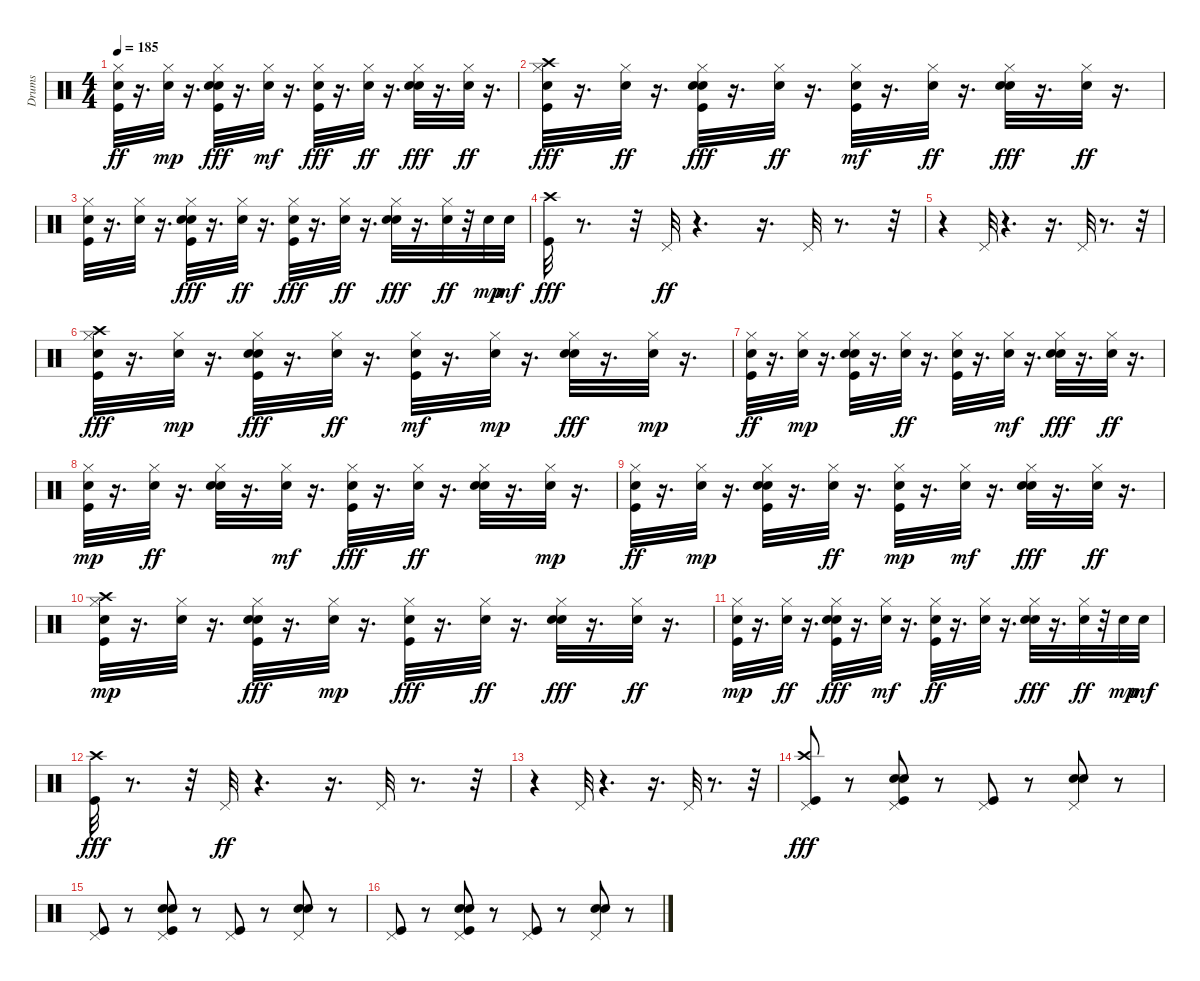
\track ("Drums" "Drums") {instrument percussion}
\staff {score}
\articulation defaults
\ts (4 4)
\tempo 185
\clef neutral
\ks c
("Snare (hit) 2" "Kick (hit)" "Hi-Hat (closed)").32{dy ff} r.16{d} ("Hi-Hat (closed)" "Snare (hit) 2").32{dy mp} r.16{d} ("Kick (hit)" "Hand Clap (hit)" "Snare (hit) 2" "Hi-Hat (closed)").32{dy fff} r.16{d} ("Hi-Hat (closed)" "Snare (hit) 2").32{dy mf} r.16{d} ("Snare (hit) 2" "Hi-Hat (closed)" "Kick (hit)").32{dy fff} r.16{d} ("Snare (hit) 2" "Hi-Hat (closed)").32{dy ff} r.16{d} ("Hand Clap (hit)" "Snare (hit) 2" "Hi-Hat (closed)").32{dy fff} r.16{d} ("Snare (hit) 2" "Hi-Hat (closed)").32{dy ff} r.16{d} |
("Kick (hit)" "Snare (hit) 2" "Hi-Hat (closed)" "Crash high (hit)").32{dy fff} r.16{d} ("Snare (hit) 2" "Hi-Hat (closed)").32{dy ff} r.16{d} ("Kick (hit)" "Hand Clap (hit)" "Snare (hit) 2" "Hi-Hat (closed)").32{dy fff} r.16{d} ("Snare (hit) 2" "Hi-Hat (closed)").32{dy ff} r.16{d} ("Hi-Hat (closed)" "Kick (hit)" "Snare (hit) 2").32{dy mf} r.16{d} ("Snare (hit) 2" "Hi-Hat (closed)").32{dy ff} r.16{d} ("Snare (hit) 2" "Hand Clap (hit)" "Hi-Hat (closed)").32{dy fff} r.16{d} ("Snare (hit) 2" "Hi-Hat (closed)").32{dy ff} r.16{d} |
("Snare (hit) 2" "Kick (hit)" "Hi-Hat (closed)").32 r.16{d} ("Snare (hit) 2" "Hi-Hat (closed)").32 r.16{d} ("Kick (hit)" "Hi-Hat (closed)" "Snare (hit) 2" "Hand Clap (hit)").32{dy fff} r.16{d} ("Snare (hit) 2" "Hi-Hat (closed)").32{dy ff} r.16{d} ("Snare (hit) 2" "Hi-Hat (closed)" "Kick (hit)").32{dy fff} r.16{d} ("Snare (hit) 2" "Hi-Hat (closed)").32{dy ff} r.16{d} ("Hi-Hat (closed)" "Hand Clap (hit)" "Snare (hit) 2").32{dy fff} r.16{d} ("Snare (hit) 2" "Hi-Hat (closed)").32{dy ff} r.32 "Snare (hit) 2".32{dy mp} "Snare (hit) 2".32{dy mf} |
("Kick (hit)" "Crash high (hit)").32{dy fff} r.8{d} r.32 "Pedal Hi-Hat (hit)".32{dy ff} r.4{d} r.16{d} "Pedal Hi-Hat (hit)".32 r.8{d} r.32 |
r.4 "Pedal Hi-Hat (hit)".32 r.4{d} r.16{d} "Pedal Hi-Hat (hit)".32 r.8{d} r.32 |
("Hi-Hat (closed)" "Snare (hit) 2" "Crash high (hit)" "Kick (hit)").32{dy fff} r.16{d} ("Hi-Hat (closed)" "Snare (hit) 2").32{dy mp} r.16{d} ("Hand Clap (hit)" "Kick (hit)" "Snare (hit) 2" "Hi-Hat (closed)").32{dy fff} r.16{d} ("Snare (hit) 2" "Hi-Hat (closed)").32{dy ff} r.16{d} ("Kick (hit)" "Hi-Hat (closed)" "Snare (hit) 2").32{dy mf} r.16{d} ("Hi-Hat (closed)" "Snare (hit) 2").32{dy mp} r.16{d} ("Hi-Hat (closed)" "Snare (hit) 2" "Hand Clap (hit)").32{dy fff} r.16{d} ("Hi-Hat (closed)" "Snare (hit) 2").32{dy mp} r.16{d} |
("Snare (hit) 2" "Kick (hit)" "Hi-Hat (closed)").32{dy ff} r.16{d} ("Hi-Hat (closed)" "Snare (hit) 2").32{dy mp} r.16{d} ("Hand Clap (hit)" "Hi-Hat (closed)" "Snare (hit) 2" "Kick (hit)").32 r.16{d} ("Snare (hit) 2" "Hi-Hat (closed)").32{dy ff} r.16{d} ("Kick (hit)" "Snare (hit) 2" "Hi-Hat (closed)").32 r.16{d} ("Hi-Hat (closed)" "Snare (hit) 2").32{dy mf} r.16{d} ("Hi-Hat (closed)" "Hand Clap (hit)" "Snare (hit) 2").32{dy fff} r.16{d} ("Snare (hit) 2" "Hi-Hat (closed)").32{dy ff} r.16{d} |
("Kick (hit)" "Hi-Hat (closed)" "Snare (hit) 2").32{dy mp} r.16{d} ("Snare (hit) 2" "Hi-Hat (closed)").32{dy ff} r.16{d} ("Snare (hit) 2" "Hand Clap (hit)" "Hi-Hat (closed)").32 r.16{d} ("Hi-Hat (closed)" "Snare (hit) 2").32{dy mf} r.16{d} ("Hi-Hat (closed)" "Snare (hit) 2" "Kick (hit)").32{dy fff} r.16{d} ("Snare (hit) 2" "Hi-Hat (closed)").32{dy ff} r.16{d} ("Hand Clap (hit)" "Snare (hit) 2" "Hi-Hat (closed)").32 r.16{d} ("Hi-Hat (closed)" "Snare (hit) 2").32{dy mp} r.16{d} |
("Snare (hit) 2" "Kick (hit)" "Hi-Hat (closed)").32{dy ff} r.16{d} ("Hi-Hat (closed)" "Snare (hit) 2").32{dy mp} r.16{d} ("Hand Clap (hit)" "Snare (hit) 2" "Hi-Hat (closed)" "Kick (hit)").32 r.16{d} ("Snare (hit) 2" "Hi-Hat (closed)").32{dy ff} r.16{d} ("Kick (hit)" "Hi-Hat (closed)" "Snare (hit) 2").32{dy mp} r.16{d} ("Hi-Hat (closed)" "Snare (hit) 2").32{dy mf} r.16{d} ("Hi-Hat (closed)" "Snare (hit) 2" "Hand Clap (hit)").32{dy fff} r.16{d} ("Snare (hit) 2" "Hi-Hat (closed)").32{dy ff} r.16{d} |
("Hi-Hat (closed)" "Crash high (hit)" "Kick (hit)" "Snare (hit) 2").32{dy mp} r.16{d} ("Hi-Hat (closed)" "Snare (hit) 2").32 r.16{d} ("Kick (hit)" "Snare (hit) 2" "Hi-Hat (closed)" "Hand Clap (hit)").32{dy fff} r.16{d} ("Hi-Hat (closed)" "Snare (hit) 2").32{dy mp} r.16{d} ("Snare (hit) 2" "Hi-Hat (closed)" "Kick (hit)").32{dy fff} r.16{d} ("Snare (hit) 2" "Hi-Hat (closed)").32{dy ff} r.16{d} ("Hi-Hat (closed)" "Hand Clap (hit)" "Snare (hit) 2").32{dy fff} r.16{d} ("Snare (hit) 2" "Hi-Hat (closed)").32{dy ff} r.16{d} |
("Kick (hit)" "Hi-Hat (closed)" "Snare (hit) 2").32{dy mp} r.16{d} ("Snare (hit) 2" "Hi-Hat (closed)").32{dy ff} r.16{d} ("Kick (hit)" "Snare (hit) 2" "Hi-Hat (closed)" "Hand Clap (hit)").32{dy fff} r.16{d} ("Hi-Hat (closed)" "Snare (hit) 2").32{dy mf} r.16{d} ("Snare (hit) 2" "Kick (hit)" "Hi-Hat (closed)").32{dy ff} r.16{d} ("Snare (hit) 2" "Hi-Hat (closed)").32 r.16{d} ("Hi-Hat (closed)" "Snare (hit) 2" "Hand Clap (hit)").32{dy fff} r.16{d} ("Snare (hit) 2" "Hi-Hat (closed)").32{dy ff} r.32 "Snare (hit) 2".32{dy mp} "Snare (hit) 2".32{dy mf} |
("Kick (hit)" "Crash high (hit)").32{dy fff} r.8{d} r.32 "Pedal Hi-Hat (hit)".32{dy ff} r.4{d} r.16{d} "Pedal Hi-Hat (hit)".32 r.8{d} r.32 |
r.4 "Pedal Hi-Hat (hit)".32 r.4{d} r.16{d} "Pedal Hi-Hat (hit)".32 r.8{d} r.32 |
("Pedal Hi-Hat (hit)" "Crash high (hit)" "Kick (hit)").8{dy fff} r.8 ("Pedal Hi-Hat (hit)" "Kick (hit)" "Hand Clap (hit)" "Snare (hit) 2").8 r.8 ("Pedal Hi-Hat (hit)" "Kick (hit)").8 r.8 ("Snare (hit) 2" "Pedal Hi-Hat (hit)" "Hand Clap (hit)").8 r.8 |
("Pedal Hi-Hat (hit)" "Kick (hit)").8 r.8 ("Pedal Hi-Hat (hit)" "Kick (hit)" "Hand Clap (hit)" "Snare (hit) 2").8 r.8 ("Pedal Hi-Hat (hit)" "Kick (hit)").8 r.8 ("Snare (hit) 2" "Pedal Hi-Hat (hit)" "Hand Clap (hit)").8 r.8 |
("Pedal Hi-Hat (hit)" "Kick (hit)").8 r.8 ("Pedal Hi-Hat (hit)" "Kick (hit)" "Hand Clap (hit)" "Snare (hit) 2").8 r.8 ("Pedal Hi-Hat (hit)" "Kick (hit)").8 r.8 ("Snare (hit) 2" "Pedal Hi-Hat (hit)" "Hand Clap (hit)").8 r.8
